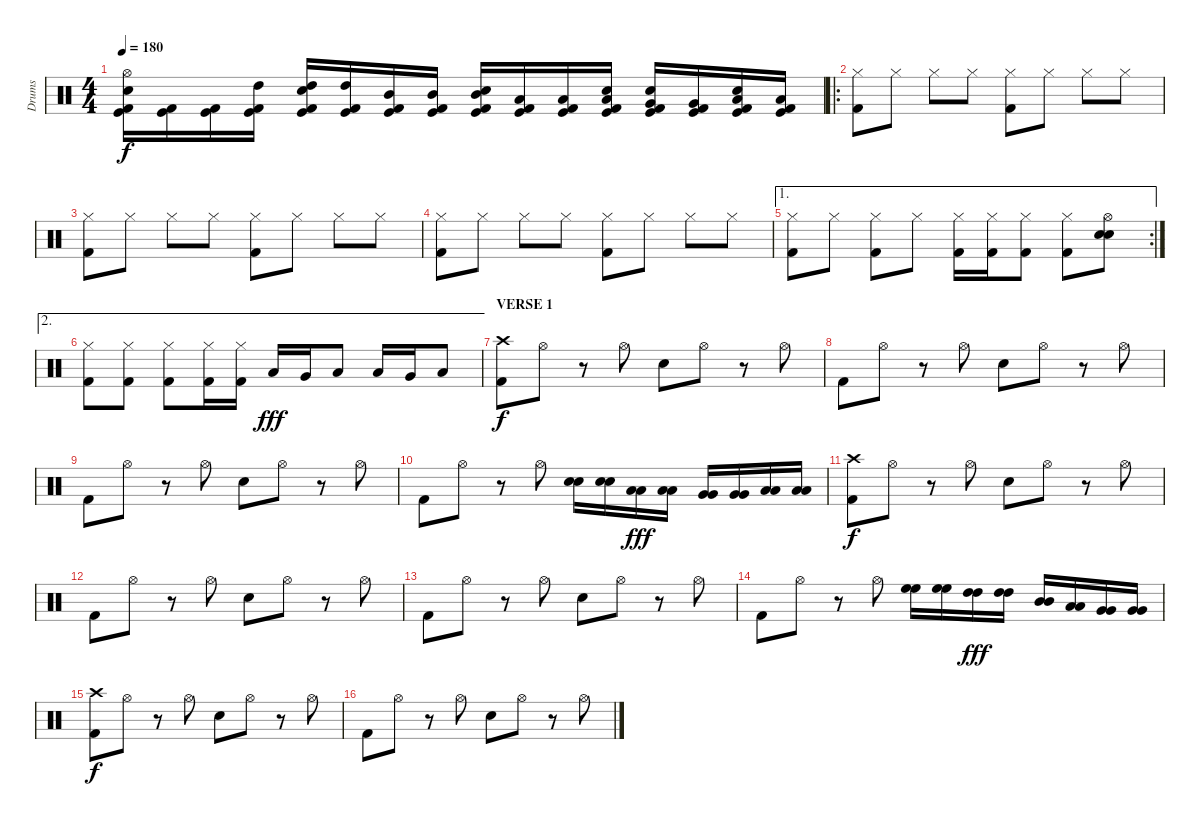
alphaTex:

\track ("Drums" "Drums") {instrument percussion}
\staff {score}
\articulation defaults
\ts (4 4)
\tempo 180
\clef neutral
\ks c
("Hi-Hat (open)" "Electric Snare (hit)" "Kick (hit)" "Kick (hit) 2").16{dy f} ("Kick (hit)" "Kick (hit) 2").16 ("Kick (hit)" "Kick (hit) 2").16 ("High Tom (hit)" "Kick (hit)" "Kick (hit) 2").16 ("High Tom (hit)" "Electric Snare (hit)" "Kick (hit)" "Kick (hit) 2").16 ("High Tom (hit)" "Kick (hit)" "Kick (hit) 2").16 ("Mid Tom (hit)" "Kick (hit)" "Kick (hit) 2").16 ("Mid Tom (hit)" "Kick (hit)" "Kick (hit) 2").16 ("Mid Tom (hit)" "Electric Snare (hit)" "Kick (hit)" "Kick (hit) 2").16 ("Low Tom (hit)" "Kick (hit)" "Kick (hit) 2").16 ("Low Tom (hit)" "Kick (hit)" "Kick (hit) 2").16 ("Low Tom (hit)" "Electric Snare (hit)" "Kick (hit)" "Kick (hit) 2").16 ("Very Low Tom (hit)" "Electric Snare (hit)" "Kick (hit)" "Kick (hit) 2").16 ("Very Low Tom (hit)" "Kick (hit)" "Kick (hit) 2").16 ("Low Floor Tom (hit)" "Electric Snare (hit)" "Kick (hit)" "Kick (hit) 2").16 ("Low Floor Tom (hit)" "Kick (hit)" "Kick (hit) 2").16 |
\ro
("Kick (hit) 2" "Hi-Hat (closed)").8 "Hi-Hat (closed)".8 "Hi-Hat (closed)".8 "Hi-Hat (closed)".8 ("Kick (hit) 2" "Hi-Hat (closed)").8 "Hi-Hat (closed)".8 "Hi-Hat (closed)".8 "Hi-Hat (closed)".8 |
("Kick (hit) 2" "Hi-Hat (closed)").8 "Hi-Hat (closed)".8 "Hi-Hat (closed)".8 "Hi-Hat (closed)".8 ("Kick (hit) 2" "Hi-Hat (closed)").8 "Hi-Hat (closed)".8 "Hi-Hat (closed)".8 "Hi-Hat (closed)".8 |
("Kick (hit) 2" "Hi-Hat (closed)").8 "Hi-Hat (closed)".8 "Hi-Hat (closed)".8 "Hi-Hat (closed)".8 ("Kick (hit) 2" "Hi-Hat (closed)").8 "Hi-Hat (closed)".8 "Hi-Hat (closed)".8 "Hi-Hat (closed)".8 |
\ae 1
\rc 2
("Kick (hit) 2" "Hi-Hat (closed)").8 "Hi-Hat (closed)".8 ("Kick (hit) 2" "Hi-Hat (closed)").8 "Hi-Hat (closed)".8 ("Kick (hit) 2" "Hi-Hat (closed)").16 ("Kick (hit) 2" "Hi-Hat (closed)").16 ("Kick (hit) 2" "Hi-Hat (closed)").8 ("Kick (hit) 2" "Hi-Hat (closed)").8 ("Electric Snare (hit)" "Electric Snare (hit)" "Hi-Hat (open)").8 |
\ae 2
("Hi-Hat (closed)" "Kick (hit) 2").8 ("Hi-Hat (closed)" "Kick (hit) 2").8 ("Hi-Hat (closed)" "Kick (hit) 2").8 ("Hi-Hat (closed)" "Kick (hit) 2").16 ("Hi-Hat (closed)" "Kick (hit) 2").16 "Low Tom (hit)".16{dy fff} "Very Low Tom (hit)".16 "Low Floor Tom (hit)".8 "Low Tom (hit)".16 "Very Low Tom (hit)".16 "Low Floor Tom (hit)".8 |
\section ("" "VERSE 1")
("Crash high (hit)" "Kick (hit) 2").8{dy f} "Hi-Hat (open)".8 r.8 "Hi-Hat (open)".8 "Electric Snare (hit)".8 "Hi-Hat (open)".8 r.8 "Hi-Hat (open)".8 |
"Kick (hit) 2".8 "Hi-Hat (open)".8 r.8 "Hi-Hat (open)".8 "Electric Snare (hit)".8 "Hi-Hat (open)".8 r.8 "Hi-Hat (open)".8 |
"Kick (hit) 2".8 "Hi-Hat (open)".8 r.8 "Hi-Hat (open)".8 "Electric Snare (hit)".8 "Hi-Hat (open)".8 r.8 "Hi-Hat (open)".8 |
"Kick (hit) 2".8 "Hi-Hat (open)".8 r.8 "Hi-Hat (open)".8 ("Electric Snare (hit)" "Electric Snare (hit)").16 ("Electric Snare (hit)" "Electric Snare (hit)").16 ("Low Tom (hit)" "Low Tom (hit)").16{dy fff} ("Low Tom (hit)" "Low Tom (hit)").16 ("Very Low Tom (hit)" "Very Low Tom (hit)").16 ("Very Low Tom (hit)" "Very Low Tom (hit)").16 ("Low Floor Tom (hit)" "Low Floor Tom (hit)").16 ("Low Floor Tom (hit)" "Low Floor Tom (hit)").16 |
("Crash high (hit)" "Kick (hit) 2").8{dy f} "Hi-Hat (open)".8 r.8 "Hi-Hat (open)".8 "Electric Snare (hit)".8 "Hi-Hat (open)".8 r.8 "Hi-Hat (open)".8 |
"Kick (hit) 2".8 "Hi-Hat (open)".8 r.8 "Hi-Hat (open)".8 "Electric Snare (hit)".8 "Hi-Hat (open)".8 r.8 "Hi-Hat (open)".8 |
"Kick (hit) 2".8 "Hi-Hat (open)".8 r.8 "Hi-Hat (open)".8 "Electric Snare (hit)".8 "Hi-Hat (open)".8 r.8 "Hi-Hat (open)".8 |
"Kick (hit) 2".8 "Hi-Hat (open)".8 r.8 "Hi-Hat (open)".8 ("High Floor Tom (hit)" "High Floor Tom (hit)").16 ("High Floor Tom (hit)" "High Floor Tom (hit)").16 ("High Tom (hit)" "High Tom (hit)").16{dy fff} ("High Tom (hit)" "High Tom (hit)").16 ("Mid Tom (hit)" "Mid Tom (hit)").16 ("Low Tom (hit)" "Low Tom (hit)").16 ("Very Low Tom (hit)" "Very Low Tom (hit)").16 ("Very Low Tom (hit)" "Very Low Tom (hit)").16 |
("Crash high (hit)" "Kick (hit) 2").8{dy f} "Hi-Hat (open)".8 r.8 "Hi-Hat (open)".8 "Electric Snare (hit)".8 "Hi-Hat (open)".8 r.8 "Hi-Hat (open)".8 |
"Kick (hit) 2".8 "Hi-Hat (open)".8 r.8 "Hi-Hat (open)".8 "Electric Snare (hit)".8 "Hi-Hat (open)".8 r.8 "Hi-Hat (open)".8
